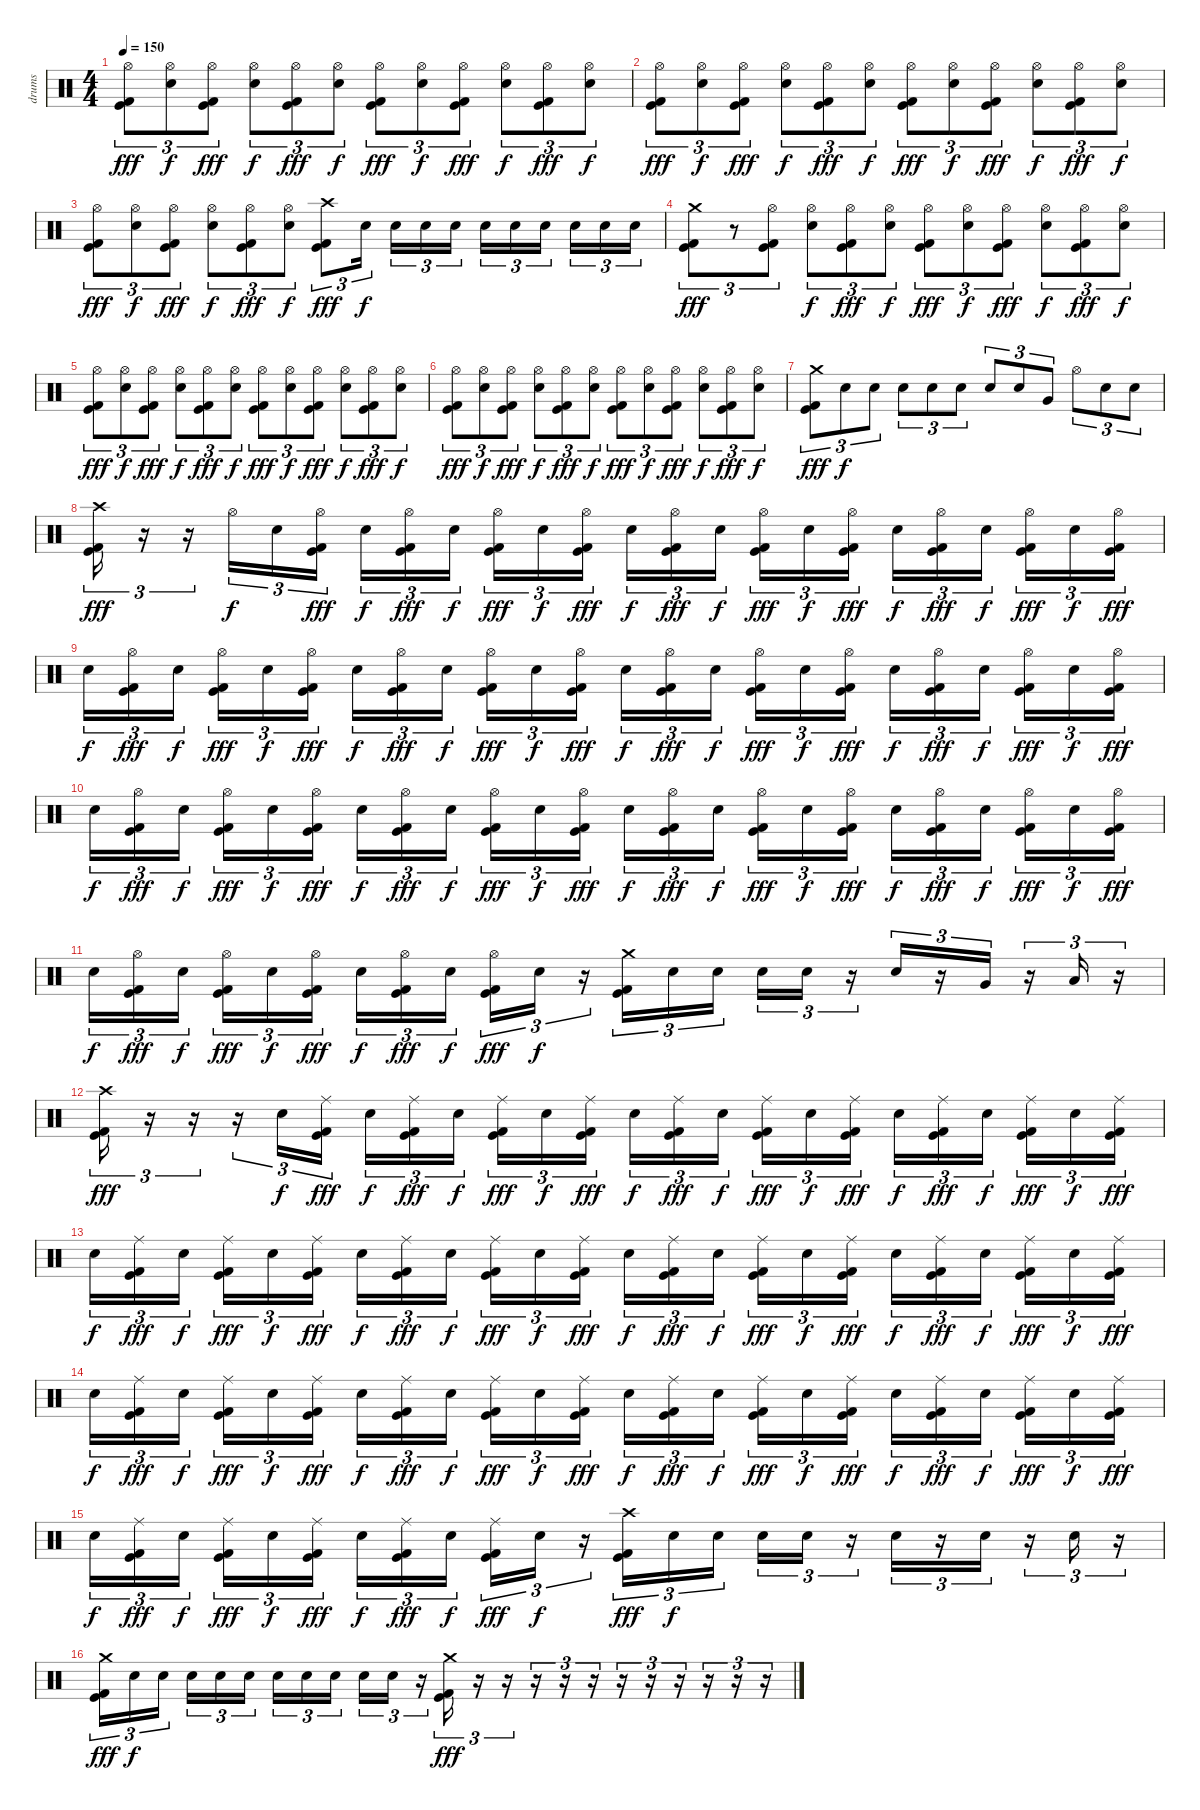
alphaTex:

\track ("drums" "drums") {instrument percussion}
\staff {score}
\articulation defaults
\ts (4 4)
\tempo 150
\clef neutral
\ks c
("Hi-Hat (open)" "Kick (hit)" "Kick (hit) 2").8{tu (3 2) dy fff} ("Hi-Hat (open)" "Electric Snare (hit)").8{tu (3 2) dy f} ("Hi-Hat (open)" "Kick (hit)" "Kick (hit) 2").8{tu (3 2) dy fff} ("Hi-Hat (open)" "Electric Snare (hit)").8{tu (3 2) dy f} ("Hi-Hat (open)" "Kick (hit)" "Kick (hit) 2").8{tu (3 2) dy fff} ("Hi-Hat (open)" "Electric Snare (hit)").8{tu (3 2) dy f} ("Hi-Hat (open)" "Kick (hit)" "Kick (hit) 2").8{tu (3 2) dy fff} ("Hi-Hat (open)" "Electric Snare (hit)").8{tu (3 2) dy f} ("Hi-Hat (open)" "Kick (hit)" "Kick (hit) 2").8{tu (3 2) dy fff} ("Hi-Hat (open)" "Electric Snare (hit)").8{tu (3 2) dy f} ("Hi-Hat (open)" "Kick (hit)" "Kick (hit) 2").8{tu (3 2) dy fff} ("Hi-Hat (open)" "Electric Snare (hit)").8{tu (3 2) dy f} |
("Hi-Hat (open)" "Kick (hit)" "Kick (hit) 2").8{tu (3 2) dy fff} ("Hi-Hat (open)" "Electric Snare (hit)").8{tu (3 2) dy f} ("Hi-Hat (open)" "Kick (hit)" "Kick (hit) 2").8{tu (3 2) dy fff} ("Hi-Hat (open)" "Electric Snare (hit)").8{tu (3 2) dy f} ("Hi-Hat (open)" "Kick (hit)" "Kick (hit) 2").8{tu (3 2) dy fff} ("Hi-Hat (open)" "Electric Snare (hit)").8{tu (3 2) dy f} ("Hi-Hat (open)" "Kick (hit)" "Kick (hit) 2").8{tu (3 2) dy fff} ("Hi-Hat (open)" "Electric Snare (hit)").8{tu (3 2) dy f} ("Hi-Hat (open)" "Kick (hit)" "Kick (hit) 2").8{tu (3 2) dy fff} ("Hi-Hat (open)" "Electric Snare (hit)").8{tu (3 2) dy f} ("Hi-Hat (open)" "Kick (hit)" "Kick (hit) 2").8{tu (3 2) dy fff} ("Hi-Hat (open)" "Electric Snare (hit)").8{tu (3 2) dy f} |
("Hi-Hat (open)" "Kick (hit)" "Kick (hit) 2").8{tu (3 2) dy fff} ("Hi-Hat (open)" "Electric Snare (hit)").8{tu (3 2) dy f} ("Hi-Hat (open)" "Kick (hit)" "Kick (hit) 2").8{tu (3 2) dy fff} ("Hi-Hat (open)" "Electric Snare (hit)").8{tu (3 2) dy f} ("Hi-Hat (open)" "Kick (hit)" "Kick (hit) 2").8{tu (3 2) dy fff} ("Hi-Hat (open)" "Electric Snare (hit)").8{tu (3 2) dy f} ("Crash high (hit)" "Kick (hit)" "Kick (hit) 2").8{tu (3 2) dy fff} "Electric Snare (hit)".16{tu (3 2) dy f} "Electric Snare (hit)".16{tu (3 2)} "Electric Snare (hit)".16{tu (3 2)} "Electric Snare (hit)".16{tu (3 2)} "Electric Snare (hit)".16{tu (3 2)} "Electric Snare (hit)".16{tu (3 2)} "Electric Snare (hit)".16{tu (3 2)} "Electric Snare (hit)".16{tu (3 2)} "Electric Snare (hit)".16{tu (3 2)} "Electric Snare (hit)".16{tu (3 2)} |
("Crash medium (hit)" "Kick (hit)" "Kick (hit) 2").8{tu (3 2) dy fff} r.8{tu (3 2)} ("Hi-Hat (open)" "Kick (hit)" "Kick (hit) 2").8{tu (3 2)} ("Hi-Hat (open)" "Electric Snare (hit)").8{tu (3 2) dy f} ("Hi-Hat (open)" "Kick (hit)" "Kick (hit) 2").8{tu (3 2) dy fff} ("Hi-Hat (open)" "Electric Snare (hit)").8{tu (3 2) dy f} ("Hi-Hat (open)" "Kick (hit)" "Kick (hit) 2").8{tu (3 2) dy fff} ("Hi-Hat (open)" "Electric Snare (hit)").8{tu (3 2) dy f} ("Hi-Hat (open)" "Kick (hit)" "Kick (hit) 2").8{tu (3 2) dy fff} ("Hi-Hat (open)" "Electric Snare (hit)").8{tu (3 2) dy f} ("Hi-Hat (open)" "Kick (hit)" "Kick (hit) 2").8{tu (3 2) dy fff} ("Hi-Hat (open)" "Electric Snare (hit)").8{tu (3 2) dy f} |
("Hi-Hat (open)" "Kick (hit)" "Kick (hit) 2").8{tu (3 2) dy fff} ("Hi-Hat (open)" "Electric Snare (hit)").8{tu (3 2) dy f} ("Hi-Hat (open)" "Kick (hit)" "Kick (hit) 2").8{tu (3 2) dy fff} ("Hi-Hat (open)" "Electric Snare (hit)").8{tu (3 2) dy f} ("Hi-Hat (open)" "Kick (hit)" "Kick (hit) 2").8{tu (3 2) dy fff} ("Hi-Hat (open)" "Electric Snare (hit)").8{tu (3 2) dy f} ("Hi-Hat (open)" "Kick (hit)" "Kick (hit) 2").8{tu (3 2) dy fff} ("Hi-Hat (open)" "Electric Snare (hit)").8{tu (3 2) dy f} ("Hi-Hat (open)" "Kick (hit)" "Kick (hit) 2").8{tu (3 2) dy fff} ("Hi-Hat (open)" "Electric Snare (hit)").8{tu (3 2) dy f} ("Hi-Hat (open)" "Kick (hit)" "Kick (hit) 2").8{tu (3 2) dy fff} ("Hi-Hat (open)" "Electric Snare (hit)").8{tu (3 2) dy f} |
("Hi-Hat (open)" "Kick (hit)" "Kick (hit) 2").8{tu (3 2) dy fff} ("Hi-Hat (open)" "Electric Snare (hit)").8{tu (3 2) dy f} ("Hi-Hat (open)" "Kick (hit)" "Kick (hit) 2").8{tu (3 2) dy fff} ("Hi-Hat (open)" "Electric Snare (hit)").8{tu (3 2) dy f} ("Hi-Hat (open)" "Kick (hit)" "Kick (hit) 2").8{tu (3 2) dy fff} ("Hi-Hat (open)" "Electric Snare (hit)").8{tu (3 2) dy f} ("Hi-Hat (open)" "Kick (hit)" "Kick (hit) 2").8{tu (3 2) dy fff} ("Hi-Hat (open)" "Electric Snare (hit)").8{tu (3 2) dy f} ("Hi-Hat (open)" "Kick (hit)" "Kick (hit) 2").8{tu (3 2) dy fff} ("Hi-Hat (open)" "Electric Snare (hit)").8{tu (3 2) dy f} ("Hi-Hat (open)" "Kick (hit)" "Kick (hit) 2").8{tu (3 2) dy fff} ("Hi-Hat (open)" "Electric Snare (hit)").8{tu (3 2) dy f} |
("Crash medium (hit)" "Kick (hit) 2" "Kick (hit)").8{tu (3 2) dy fff} "Electric Snare (hit)".8{tu (3 2) dy f} "Electric Snare (hit)".8{tu (3 2)} "Electric Snare (hit)".8{tu (3 2)} "Electric Snare (hit)".8{tu (3 2)} "Electric Snare (hit)".8{tu (3 2)} "Electric Snare (hit)".8{tu (3 2)} "Electric Snare (hit)".8{tu (3 2)} "Very Low Tom (hit)".8{tu (3 2)} "Hi-Hat (open)".8{tu (3 2)} "Electric Snare (hit)".8{tu (3 2)} "Electric Snare (hit)".8{tu (3 2)} |
("Crash high (hit)" "Kick (hit)" "Kick (hit) 2").16{tu (3 2) dy fff} r.16{tu (3 2)} r.16{tu (3 2)} "Hi-Hat (open)".16{tu (3 2) dy f} "Electric Snare (hit)".16{tu (3 2)} ("Hi-Hat (open)" "Kick (hit)" "Kick (hit) 2").16{tu (3 2) dy fff} "Electric Snare (hit)".16{tu (3 2) dy f} ("Hi-Hat (open)" "Kick (hit)" "Kick (hit) 2").16{tu (3 2) dy fff} "Electric Snare (hit)".16{tu (3 2) dy f} ("Hi-Hat (open)" "Kick (hit)" "Kick (hit) 2").16{tu (3 2) dy fff} "Electric Snare (hit)".16{tu (3 2) dy f} ("Hi-Hat (open)" "Kick (hit)" "Kick (hit) 2").16{tu (3 2) dy fff} "Electric Snare (hit)".16{tu (3 2) dy f} ("Hi-Hat (open)" "Kick (hit)" "Kick (hit) 2").16{tu (3 2) dy fff} "Electric Snare (hit)".16{tu (3 2) dy f} ("Hi-Hat (open)" "Kick (hit)" "Kick (hit) 2").16{tu (3 2) dy fff} "Electric Snare (hit)".16{tu (3 2) dy f} ("Hi-Hat (open)" "Kick (hit)" "Kick (hit) 2").16{tu (3 2) dy fff} "Electric Snare (hit)".16{tu (3 2) dy f} ("Hi-Hat (open)" "Kick (hit)" "Kick (hit) 2").16{tu (3 2) dy fff} "Electric Snare (hit)".16{tu (3 2) dy f} ("Hi-Hat (open)" "Kick (hit)" "Kick (hit) 2").16{tu (3 2) dy fff} "Electric Snare (hit)".16{tu (3 2) dy f} ("Hi-Hat (open)" "Kick (hit)" "Kick (hit) 2").16{tu (3 2) dy fff} |
"Electric Snare (hit)".16{tu (3 2) dy f} ("Hi-Hat (open)" "Kick (hit)" "Kick (hit) 2").16{tu (3 2) dy fff} "Electric Snare (hit)".16{tu (3 2) dy f} ("Hi-Hat (open)" "Kick (hit)" "Kick (hit) 2").16{tu (3 2) dy fff} "Electric Snare (hit)".16{tu (3 2) dy f} ("Hi-Hat (open)" "Kick (hit)" "Kick (hit) 2").16{tu (3 2) dy fff} "Electric Snare (hit)".16{tu (3 2) dy f} ("Hi-Hat (open)" "Kick (hit)" "Kick (hit) 2").16{tu (3 2) dy fff} "Electric Snare (hit)".16{tu (3 2) dy f} ("Hi-Hat (open)" "Kick (hit)" "Kick (hit) 2").16{tu (3 2) dy fff} "Electric Snare (hit)".16{tu (3 2) dy f} ("Hi-Hat (open)" "Kick (hit)" "Kick (hit) 2").16{tu (3 2) dy fff} "Electric Snare (hit)".16{tu (3 2) dy f} ("Hi-Hat (open)" "Kick (hit)" "Kick (hit) 2").16{tu (3 2) dy fff} "Electric Snare (hit)".16{tu (3 2) dy f} ("Hi-Hat (open)" "Kick (hit)" "Kick (hit) 2").16{tu (3 2) dy fff} "Electric Snare (hit)".16{tu (3 2) dy f} ("Hi-Hat (open)" "Kick (hit)" "Kick (hit) 2").16{tu (3 2) dy fff} "Electric Snare (hit)".16{tu (3 2) dy f} ("Hi-Hat (open)" "Kick (hit)" "Kick (hit) 2").16{tu (3 2) dy fff} "Electric Snare (hit)".16{tu (3 2) dy f} ("Hi-Hat (open)" "Kick (hit)" "Kick (hit) 2").16{tu (3 2) dy fff} "Electric Snare (hit)".16{tu (3 2) dy f} ("Hi-Hat (open)" "Kick (hit)" "Kick (hit) 2").16{tu (3 2) dy fff} |
"Electric Snare (hit)".16{tu (3 2) dy f} ("Hi-Hat (open)" "Kick (hit)" "Kick (hit) 2").16{tu (3 2) dy fff} "Electric Snare (hit)".16{tu (3 2) dy f} ("Hi-Hat (open)" "Kick (hit)" "Kick (hit) 2").16{tu (3 2) dy fff} "Electric Snare (hit)".16{tu (3 2) dy f} ("Hi-Hat (open)" "Kick (hit)" "Kick (hit) 2").16{tu (3 2) dy fff} "Electric Snare (hit)".16{tu (3 2) dy f} ("Hi-Hat (open)" "Kick (hit)" "Kick (hit) 2").16{tu (3 2) dy fff} "Electric Snare (hit)".16{tu (3 2) dy f} ("Hi-Hat (open)" "Kick (hit)" "Kick (hit) 2").16{tu (3 2) dy fff} "Electric Snare (hit)".16{tu (3 2) dy f} ("Hi-Hat (open)" "Kick (hit)" "Kick (hit) 2").16{tu (3 2) dy fff} "Electric Snare (hit)".16{tu (3 2) dy f} ("Hi-Hat (open)" "Kick (hit)" "Kick (hit) 2").16{tu (3 2) dy fff} "Electric Snare (hit)".16{tu (3 2) dy f} ("Hi-Hat (open)" "Kick (hit)" "Kick (hit) 2").16{tu (3 2) dy fff} "Electric Snare (hit)".16{tu (3 2) dy f} ("Hi-Hat (open)" "Kick (hit)" "Kick (hit) 2").16{tu (3 2) dy fff} "Electric Snare (hit)".16{tu (3 2) dy f} ("Hi-Hat (open)" "Kick (hit)" "Kick (hit) 2").16{tu (3 2) dy fff} "Electric Snare (hit)".16{tu (3 2) dy f} ("Hi-Hat (open)" "Kick (hit)" "Kick (hit) 2").16{tu (3 2) dy fff} "Electric Snare (hit)".16{tu (3 2) dy f} ("Hi-Hat (open)" "Kick (hit)" "Kick (hit) 2").16{tu (3 2) dy fff} |
"Electric Snare (hit)".16{tu (3 2) dy f} ("Hi-Hat (open)" "Kick (hit)" "Kick (hit) 2").16{tu (3 2) dy fff} "Electric Snare (hit)".16{tu (3 2) dy f} ("Hi-Hat (open)" "Kick (hit)" "Kick (hit) 2").16{tu (3 2) dy fff} "Electric Snare (hit)".16{tu (3 2) dy f} ("Hi-Hat (open)" "Kick (hit)" "Kick (hit) 2").16{tu (3 2) dy fff} "Electric Snare (hit)".16{tu (3 2) dy f} ("Hi-Hat (open)" "Kick (hit)" "Kick (hit) 2").16{tu (3 2) dy fff} "Electric Snare (hit)".16{tu (3 2) dy f} ("Hi-Hat (open)" "Kick (hit)" "Kick (hit) 2").16{tu (3 2) dy fff} "Electric Snare (hit)".16{tu (3 2) dy f} r.16{tu (3 2)} ("Crash medium (hit)" "Kick (hit)" "Kick (hit) 2").16{tu (3 2)} "Electric Snare (hit)".16{tu (3 2)} "Electric Snare (hit)".16{tu (3 2)} "Electric Snare (hit)".16{tu (3 2)} "Electric Snare (hit)".16{tu (3 2)} r.16{tu (3 2)} "Electric Snare (hit)".16{tu (3 2)} r.16{tu (3 2)} "Very Low Tom (hit)".16{tu (3 2)} r.16{tu (3 2)} "Low Floor Tom (hit)".16{tu (3 2)} r.16{tu (3 2)} |
("Crash high (hit)" "Kick (hit)" "Kick (hit) 2").16{tu (3 2) dy fff} r.16{tu (3 2)} r.16{tu (3 2)} r.16{tu (3 2)} "Electric Snare (hit)".16{tu (3 2) dy f} ("Ride (middle)" "Kick (hit)" "Kick (hit) 2").16{tu (3 2) dy fff} "Electric Snare (hit)".16{tu (3 2) dy f} ("Ride (middle)" "Kick (hit)" "Kick (hit) 2").16{tu (3 2) dy fff} "Electric Snare (hit)".16{tu (3 2) dy f} ("Ride (middle)" "Kick (hit)" "Kick (hit) 2").16{tu (3 2) dy fff} "Electric Snare (hit)".16{tu (3 2) dy f} ("Ride (middle)" "Kick (hit)" "Kick (hit) 2").16{tu (3 2) dy fff} "Electric Snare (hit)".16{tu (3 2) dy f} ("Ride (middle)" "Kick (hit)" "Kick (hit) 2").16{tu (3 2) dy fff} "Electric Snare (hit)".16{tu (3 2) dy f} ("Ride (middle)" "Kick (hit)" "Kick (hit) 2").16{tu (3 2) dy fff} "Electric Snare (hit)".16{tu (3 2) dy f} ("Ride (middle)" "Kick (hit)" "Kick (hit) 2").16{tu (3 2) dy fff} "Electric Snare (hit)".16{tu (3 2) dy f} ("Ride (middle)" "Kick (hit)" "Kick (hit) 2").16{tu (3 2) dy fff} "Electric Snare (hit)".16{tu (3 2) dy f} ("Ride (middle)" "Kick (hit)" "Kick (hit) 2").16{tu (3 2) dy fff} "Electric Snare (hit)".16{tu (3 2) dy f} ("Ride (middle)" "Kick (hit)" "Kick (hit) 2").16{tu (3 2) dy fff} |
"Electric Snare (hit)".16{tu (3 2) dy f} ("Ride (middle)" "Kick (hit)" "Kick (hit) 2").16{tu (3 2) dy fff} "Electric Snare (hit)".16{tu (3 2) dy f} ("Ride (middle)" "Kick (hit)" "Kick (hit) 2").16{tu (3 2) dy fff} "Electric Snare (hit)".16{tu (3 2) dy f} ("Ride (middle)" "Kick (hit)" "Kick (hit) 2").16{tu (3 2) dy fff} "Electric Snare (hit)".16{tu (3 2) dy f} ("Ride (middle)" "Kick (hit)" "Kick (hit) 2").16{tu (3 2) dy fff} "Electric Snare (hit)".16{tu (3 2) dy f} ("Ride (middle)" "Kick (hit)" "Kick (hit) 2").16{tu (3 2) dy fff} "Electric Snare (hit)".16{tu (3 2) dy f} ("Ride (middle)" "Kick (hit)" "Kick (hit) 2").16{tu (3 2) dy fff} "Electric Snare (hit)".16{tu (3 2) dy f} ("Ride (middle)" "Kick (hit)" "Kick (hit) 2").16{tu (3 2) dy fff} "Electric Snare (hit)".16{tu (3 2) dy f} ("Ride (middle)" "Kick (hit)" "Kick (hit) 2").16{tu (3 2) dy fff} "Electric Snare (hit)".16{tu (3 2) dy f} ("Ride (middle)" "Kick (hit)" "Kick (hit) 2").16{tu (3 2) dy fff} "Electric Snare (hit)".16{tu (3 2) dy f} ("Ride (middle)" "Kick (hit)" "Kick (hit) 2").16{tu (3 2) dy fff} "Electric Snare (hit)".16{tu (3 2) dy f} ("Ride (middle)" "Kick (hit)" "Kick (hit) 2").16{tu (3 2) dy fff} "Electric Snare (hit)".16{tu (3 2) dy f} ("Ride (middle)" "Kick (hit)" "Kick (hit) 2").16{tu (3 2) dy fff} |
"Electric Snare (hit)".16{tu (3 2) dy f} ("Ride (middle)" "Kick (hit)" "Kick (hit) 2").16{tu (3 2) dy fff} "Electric Snare (hit)".16{tu (3 2) dy f} ("Ride (middle)" "Kick (hit)" "Kick (hit) 2").16{tu (3 2) dy fff} "Electric Snare (hit)".16{tu (3 2) dy f} ("Ride (middle)" "Kick (hit)" "Kick (hit) 2").16{tu (3 2) dy fff} "Electric Snare (hit)".16{tu (3 2) dy f} ("Ride (middle)" "Kick (hit)" "Kick (hit) 2").16{tu (3 2) dy fff} "Electric Snare (hit)".16{tu (3 2) dy f} ("Ride (middle)" "Kick (hit)" "Kick (hit) 2").16{tu (3 2) dy fff} "Electric Snare (hit)".16{tu (3 2) dy f} ("Ride (middle)" "Kick (hit)" "Kick (hit) 2").16{tu (3 2) dy fff} "Electric Snare (hit)".16{tu (3 2) dy f} ("Ride (middle)" "Kick (hit)" "Kick (hit) 2").16{tu (3 2) dy fff} "Electric Snare (hit)".16{tu (3 2) dy f} ("Ride (middle)" "Kick (hit)" "Kick (hit) 2").16{tu (3 2) dy fff} "Electric Snare (hit)".16{tu (3 2) dy f} ("Ride (middle)" "Kick (hit)" "Kick (hit) 2").16{tu (3 2) dy fff} "Electric Snare (hit)".16{tu (3 2) dy f} ("Ride (middle)" "Kick (hit)" "Kick (hit) 2").16{tu (3 2) dy fff} "Electric Snare (hit)".16{tu (3 2) dy f} ("Ride (middle)" "Kick (hit)" "Kick (hit) 2").16{tu (3 2) dy fff} "Electric Snare (hit)".16{tu (3 2) dy f} ("Ride (middle)" "Kick (hit)" "Kick (hit) 2").16{tu (3 2) dy fff} |
"Electric Snare (hit)".16{tu (3 2) dy f} ("Ride (middle)" "Kick (hit)" "Kick (hit) 2").16{tu (3 2) dy fff} "Electric Snare (hit)".16{tu (3 2) dy f} ("Ride (middle)" "Kick (hit)" "Kick (hit) 2").16{tu (3 2) dy fff} "Electric Snare (hit)".16{tu (3 2) dy f} ("Ride (middle)" "Kick (hit)" "Kick (hit) 2").16{tu (3 2) dy fff} "Electric Snare (hit)".16{tu (3 2) dy f} ("Ride (middle)" "Kick (hit)" "Kick (hit) 2").16{tu (3 2) dy fff} "Electric Snare (hit)".16{tu (3 2) dy f} ("Ride (middle)" "Kick (hit)" "Kick (hit) 2").16{tu (3 2) dy fff} "Electric Snare (hit)".16{tu (3 2) dy f} r.16{tu (3 2)} ("Crash high (hit)" "Kick (hit)" "Kick (hit) 2").16{tu (3 2) dy fff} "Electric Snare (hit)".16{tu (3 2) dy f} "Electric Snare (hit)".16{tu (3 2)} "Electric Snare (hit)".16{tu (3 2)} "Electric Snare (hit)".16{tu (3 2)} r.16{tu (3 2)} "Electric Snare (hit)".16{tu (3 2)} r.16{tu (3 2)} "Electric Snare (hit)".16{tu (3 2)} r.16{tu (3 2)} "Electric Snare (hit)".16{tu (3 2)} r.16{tu (3 2)} |
("Crash medium (hit)" "Kick (hit)" "Kick (hit) 2").16{tu (3 2) dy fff} "Electric Snare (hit)".16{tu (3 2) dy f} "Electric Snare (hit)".16{tu (3 2)} "Electric Snare (hit)".16{tu (3 2)} "Electric Snare (hit)".16{tu (3 2)} "Electric Snare (hit)".16{tu (3 2)} "Electric Snare (hit)".16{tu (3 2)} "Electric Snare (hit)".16{tu (3 2)} "Electric Snare (hit)".16{tu (3 2)} "Electric Snare (hit)".16{tu (3 2)} "Snare (hit)".16{tu (3 2)} r.16{tu (3 2)} ("Crash medium (hit)" "Kick (hit)" "Kick (hit) 2").16{tu (3 2) dy fff} r.16{tu (3 2)} r.16{tu (3 2)} r.16{tu (3 2)} r.16{tu (3 2)} r.16{tu (3 2)} r.16{tu (3 2)} r.16{tu (3 2)} r.16{tu (3 2)} r.16{tu (3 2)} r.16{tu (3 2)} r.16{tu (3 2)}
